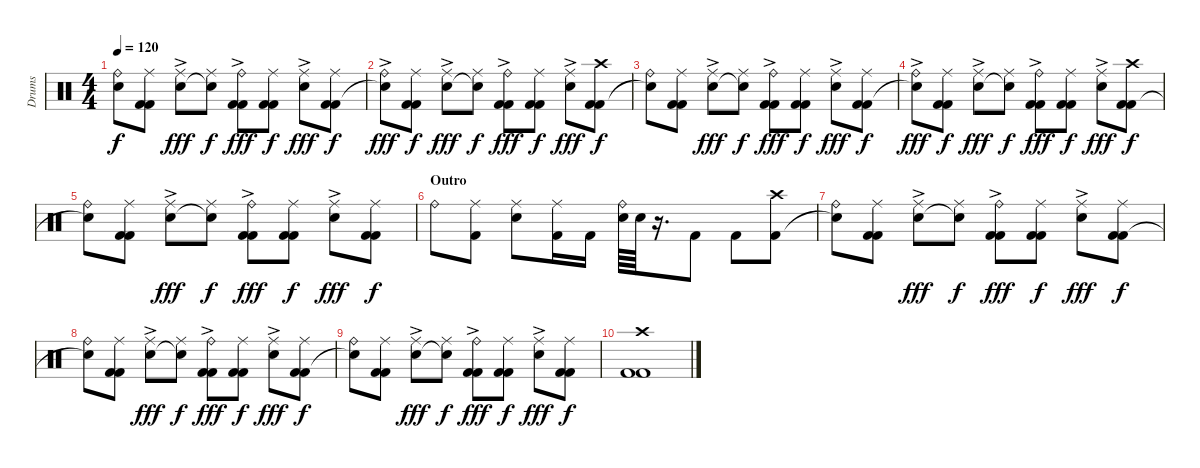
\track ("Drums" "Drums") {instrument percussion}
\staff {score}
\articulation defaults
\ts (4 4)
\tempo 120
\clef neutral
\ks c
("Ride (bell)" "Snare (hit)"{t}).8{dy f} ("Ride (middle)" "Kick (hit) 2" "Kick (hit) 2").8 ("Ride (middle)"{ac} "Snare (hit) 2").8{dy fff} ("Ride (middle)" "Electric Snare (hit)"{t}).8{dy f} ("Ride (bell)"{ac} "Kick (hit) 2" "Kick (hit) 2").8{dy fff} ("Ride (middle)" "Kick (hit) 2" "Kick (hit) 2").8{dy f} ("Ride (middle)"{ac} "Snare (hit) 2").8{dy fff} ("Ride (middle)" "Kick (hit) 2" "Kick (hit) 2").8{dy f} |
("Ride (bell)"{ac} "Snare (hit)"{t}).8{dy fff} ("Ride (middle)" "Kick (hit) 2" "Kick (hit) 2").8{dy f} ("Ride (middle)"{ac} "Snare (hit) 2").8{dy fff} ("Ride (middle)" "Electric Snare (hit)"{t}).8{dy f} ("Ride (bell)"{ac} "Kick (hit) 2" "Kick (hit) 2").8{dy fff} ("Ride (middle)" "Kick (hit) 2" "Kick (hit) 2").8{dy f} ("Ride (middle)"{ac} "Snare (hit) 2").8{dy fff} ("Crash high (hit)" "Kick (hit) 2" "Kick (hit) 2").8{dy f} |
("Ride (bell)" "Snare (hit)"{t}).8 ("Ride (middle)" "Kick (hit) 2" "Kick (hit) 2").8 ("Ride (middle)"{ac} "Snare (hit) 2").8{dy fff} ("Ride (middle)" "Electric Snare (hit)"{t}).8{dy f} ("Ride (bell)"{ac} "Kick (hit) 2" "Kick (hit) 2").8{dy fff} ("Ride (middle)" "Kick (hit) 2" "Kick (hit) 2").8{dy f} ("Ride (middle)"{ac} "Snare (hit) 2").8{dy fff} ("Ride (middle)" "Kick (hit) 2" "Kick (hit) 2").8{dy f} |
("Ride (bell)"{ac} "Snare (hit)"{t}).8{dy fff} ("Ride (middle)" "Kick (hit) 2" "Kick (hit) 2").8{dy f} ("Ride (middle)"{ac} "Snare (hit) 2").8{dy fff} ("Ride (middle)" "Electric Snare (hit)"{t}).8{dy f} ("Ride (bell)"{ac} "Kick (hit) 2" "Kick (hit) 2").8{dy fff} ("Ride (middle)" "Kick (hit) 2" "Kick (hit) 2").8{dy f} ("Ride (middle)"{ac} "Snare (hit) 2").8{dy fff} ("Crash high (hit)" "Kick (hit) 2" "Kick (hit) 2").8{dy f} |
("Ride (bell)" "Snare (hit)"{t}).8 ("Ride (middle)" "Kick (hit) 2" "Kick (hit) 2").8 ("Ride (middle)"{ac} "Snare (hit) 2").8{dy fff} ("Ride (middle)" "Electric Snare (hit)"{t}).8{dy f} ("Ride (bell)"{ac} "Kick (hit) 2" "Kick (hit) 2").8{dy fff} ("Ride (middle)" "Kick (hit) 2" "Kick (hit) 2").8{dy f} ("Ride (middle)"{ac} "Snare (hit) 2").8{dy fff} ("Ride (middle)" "Kick (hit) 2" "Kick (hit) 2").8{dy f} |
\section ("" "Outro")
"Ride (bell)".8 ("Ride (middle)" "Kick (hit) 2").8 ("Ride (middle)" "Electric Snare (hit)").8 ("Ride (middle)" "Kick (hit) 2").16 "Kick (hit) 2".16 ("Ride (bell)" "Electric Snare (hit)").64 "Electric Snare (hit)".64 r.16{d} "Kick (hit) 2".8 "Kick (hit) 2".8 ("Crash high (hit)" "Kick (hit) 2").8 |
("Ride (bell)" "Snare (hit)"{t}).8 ("Ride (middle)" "Kick (hit) 2" "Kick (hit) 2").8 ("Ride (middle)"{ac} "Snare (hit) 2").8{dy fff volume 11} ("Ride (middle)" "Electric Snare (hit)"{t}).8{dy f} ("Ride (bell)"{ac} "Kick (hit) 2" "Kick (hit) 2").8{dy fff} ("Ride (middle)" "Kick (hit) 2" "Kick (hit) 2").8{dy f} ("Ride (middle)"{ac} "Snare (hit) 2").8{dy fff} ("Ride (middle)" "Kick (hit) 2" "Kick (hit) 2").8{dy f volume 9} |
("Ride (bell)" "Snare (hit)"{t}).8 ("Ride (middle)" "Kick (hit) 2" "Kick (hit) 2").8 ("Ride (middle)"{ac} "Snare (hit) 2").8{dy fff volume 7} ("Ride (middle)" "Electric Snare (hit)"{t}).8{dy f} ("Ride (bell)"{ac} "Kick (hit) 2" "Kick (hit) 2").8{dy fff} ("Ride (middle)" "Kick (hit) 2" "Kick (hit) 2").8{dy f} ("Ride (middle)"{ac} "Snare (hit) 2").8{dy fff} ("Ride (middle)" "Kick (hit) 2" "Kick (hit) 2").8{dy f volume 5} |
("Ride (bell)" "Snare (hit)"{t}).8 ("Ride (middle)" "Kick (hit) 2" "Kick (hit) 2").8 ("Ride (middle)"{ac} "Snare (hit) 2").8{dy fff volume 3} ("Ride (middle)" "Electric Snare (hit)"{t}).8{dy f} ("Ride (bell)"{ac} "Kick (hit) 2" "Kick (hit) 2").8{dy fff} ("Ride (middle)" "Kick (hit) 2" "Kick (hit) 2").8{dy f} ("Ride (middle)"{ac} "Snare (hit) 2").8{dy fff} ("Ride (middle)" "Kick (hit) 2" "Kick (hit) 2").8{dy f} |
("Crash high (hit)" "Kick (hit) 2" "Kick (hit) 2").1
